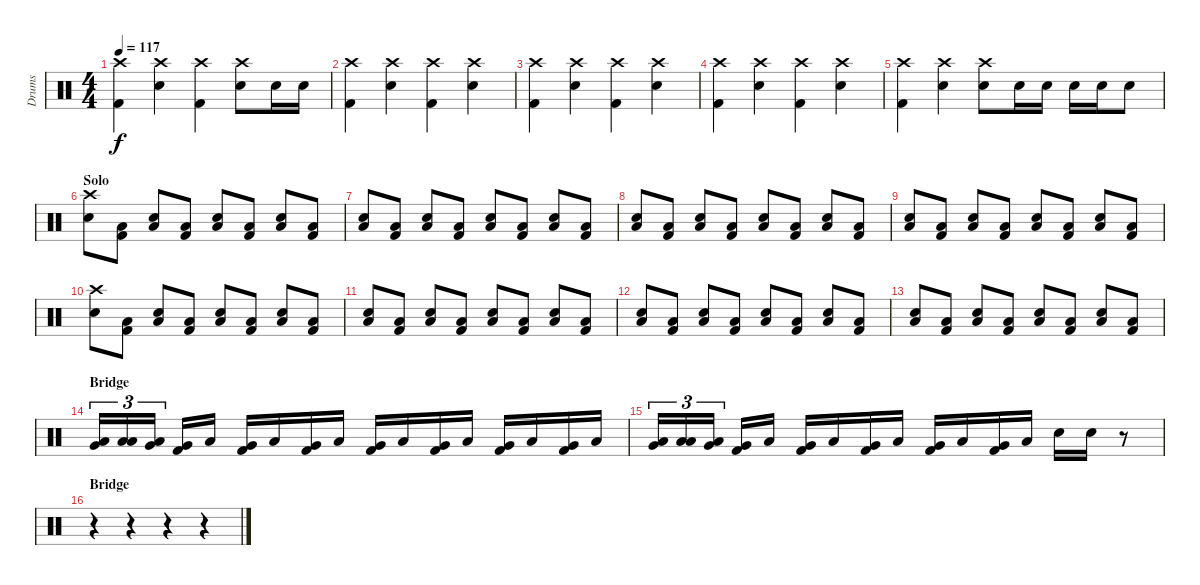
\track ("Drums" "Drums") {instrument percussion}
\staff {score}
\articulation defaults
\ts (4 4)
\tempo 117
\clef neutral
\ks c
("Crash high (hit)" "Kick (hit) 2").4{dy f} ("Crash high (hit)" "Snare (hit) 2").4 ("Crash high (hit)" "Kick (hit) 2").4 ("Crash high (hit)" "Snare (hit) 2").8 "Snare (hit) 2".16 "Snare (hit) 2".16 |
("Crash high (hit)" "Kick (hit) 2").4 ("Crash high (hit)" "Snare (hit) 2").4 ("Crash high (hit)" "Kick (hit) 2").4 ("Crash high (hit)" "Snare (hit) 2").4 |
("Crash high (hit)" "Kick (hit) 2").4 ("Crash high (hit)" "Snare (hit) 2").4 ("Crash high (hit)" "Kick (hit) 2").4 ("Crash high (hit)" "Snare (hit) 2").4 |
("Crash high (hit)" "Kick (hit) 2").4 ("Crash high (hit)" "Snare (hit) 2").4 ("Crash high (hit)" "Kick (hit) 2").4 ("Crash high (hit)" "Snare (hit) 2").4 |
("Crash high (hit)" "Kick (hit) 2").4 ("Crash high (hit)" "Snare (hit) 2").4 ("Crash high (hit)" "Snare (hit) 2").8 "Snare (hit) 2".16 "Snare (hit) 2".16 "Snare (hit) 2".16 "Snare (hit) 2".16 "Snare (hit) 2".8 |
\section ("" "Solo")
("Crash high (hit)" "Snare (hit) 2").8 ("Low Floor Tom (hit)" "Kick (hit) 2").8 ("Low Floor Tom (hit)" "Snare (hit) 2").8 ("Low Floor Tom (hit)" "Kick (hit) 2").8 ("Low Floor Tom (hit)" "Snare (hit) 2").8 ("Low Floor Tom (hit)" "Kick (hit) 2").8 ("Low Floor Tom (hit)" "Snare (hit) 2").8 ("Low Floor Tom (hit)" "Kick (hit) 2").8 |
("Low Floor Tom (hit)" "Snare (hit) 2").8 ("Low Floor Tom (hit)" "Kick (hit) 2").8 ("Low Floor Tom (hit)" "Snare (hit) 2").8 ("Low Floor Tom (hit)" "Kick (hit) 2").8 ("Low Floor Tom (hit)" "Snare (hit) 2").8 ("Low Floor Tom (hit)" "Kick (hit) 2").8 ("Low Floor Tom (hit)" "Snare (hit) 2").8 ("Low Floor Tom (hit)" "Kick (hit) 2").8 |
("Low Floor Tom (hit)" "Snare (hit) 2").8 ("Low Floor Tom (hit)" "Kick (hit) 2").8 ("Low Floor Tom (hit)" "Snare (hit) 2").8 ("Low Floor Tom (hit)" "Kick (hit) 2").8 ("Low Floor Tom (hit)" "Snare (hit) 2").8 ("Low Floor Tom (hit)" "Kick (hit) 2").8 ("Low Floor Tom (hit)" "Snare (hit) 2").8 ("Low Floor Tom (hit)" "Kick (hit) 2").8 |
("Low Floor Tom (hit)" "Snare (hit) 2").8 ("Low Floor Tom (hit)" "Kick (hit) 2").8 ("Low Floor Tom (hit)" "Snare (hit) 2").8 ("Low Floor Tom (hit)" "Kick (hit) 2").8 ("Low Floor Tom (hit)" "Snare (hit) 2").8 ("Low Floor Tom (hit)" "Kick (hit) 2").8 ("Low Floor Tom (hit)" "Snare (hit) 2").8 ("Low Floor Tom (hit)" "Kick (hit) 2").8 |
("Crash high (hit)" "Snare (hit) 2").8 ("Low Floor Tom (hit)" "Kick (hit) 2").8 ("Low Floor Tom (hit)" "Snare (hit) 2").8 ("Low Floor Tom (hit)" "Kick (hit) 2").8 ("Low Floor Tom (hit)" "Snare (hit) 2").8 ("Low Floor Tom (hit)" "Kick (hit) 2").8 ("Low Floor Tom (hit)" "Snare (hit) 2").8 ("Low Floor Tom (hit)" "Kick (hit) 2").8 |
("Low Floor Tom (hit)" "Snare (hit) 2").8 ("Low Floor Tom (hit)" "Kick (hit) 2").8 ("Low Floor Tom (hit)" "Snare (hit) 2").8 ("Low Floor Tom (hit)" "Kick (hit) 2").8 ("Low Floor Tom (hit)" "Snare (hit) 2").8 ("Low Floor Tom (hit)" "Kick (hit) 2").8 ("Low Floor Tom (hit)" "Snare (hit) 2").8 ("Low Floor Tom (hit)" "Kick (hit) 2").8 |
("Low Floor Tom (hit)" "Snare (hit) 2").8 ("Low Floor Tom (hit)" "Kick (hit) 2").8 ("Low Floor Tom (hit)" "Snare (hit) 2").8 ("Low Floor Tom (hit)" "Kick (hit) 2").8 ("Low Floor Tom (hit)" "Snare (hit) 2").8 ("Low Floor Tom (hit)" "Kick (hit) 2").8 ("Low Floor Tom (hit)" "Snare (hit) 2").8 ("Low Floor Tom (hit)" "Kick (hit) 2").8 |
("Low Floor Tom (hit)" "Snare (hit) 2").8 ("Low Floor Tom (hit)" "Kick (hit) 2").8 ("Low Floor Tom (hit)" "Snare (hit) 2").8 ("Low Floor Tom (hit)" "Kick (hit) 2").8 ("Low Floor Tom (hit)" "Snare (hit) 2").8 ("Low Floor Tom (hit)" "Kick (hit) 2").8 ("Low Floor Tom (hit)" "Snare (hit) 2").8 ("Low Floor Tom (hit)" "Kick (hit) 2").8 |
\section ("" "Bridge")
("Low Floor Tom (hit)" "Very Low Tom (hit)").16{tu (3 2)} ("Low Floor Tom (hit)" "Low Tom (hit)").16{tu (3 2)} ("Low Floor Tom (hit)" "Very Low Tom (hit)").16{tu (3 2)} ("Very Low Tom (hit)" "Kick (hit) 2").16 "Low Floor Tom (hit)".16 ("Very Low Tom (hit)" "Kick (hit) 2").16 "Low Floor Tom (hit)".16 ("Very Low Tom (hit)" "Kick (hit) 2").16 "Low Floor Tom (hit)".16 ("Very Low Tom (hit)" "Kick (hit) 2").16 "Low Floor Tom (hit)".16 ("Very Low Tom (hit)" "Kick (hit) 2").16 "Low Floor Tom (hit)".16 ("Very Low Tom (hit)" "Kick (hit) 2").16 "Low Floor Tom (hit)".16 ("Very Low Tom (hit)" "Kick (hit) 2").16 "Low Floor Tom (hit)".16 |
("Low Floor Tom (hit)" "Very Low Tom (hit)").16{tu (3 2)} ("Low Floor Tom (hit)" "Low Tom (hit)").16{tu (3 2)} ("Low Floor Tom (hit)" "Very Low Tom (hit)").16{tu (3 2)} ("Very Low Tom (hit)" "Kick (hit) 2").16 "Low Floor Tom (hit)".16 ("Very Low Tom (hit)" "Kick (hit) 2").16 "Low Floor Tom (hit)".16 ("Very Low Tom (hit)" "Kick (hit) 2").16 "Low Floor Tom (hit)".16 ("Very Low Tom (hit)" "Kick (hit) 2").16 "Low Floor Tom (hit)".16 ("Very Low Tom (hit)" "Kick (hit) 2").16 "Low Floor Tom (hit)".16 "Snare (hit) 2".16 "Snare (hit) 2".16 r.8 |
\section ("" "Bridge")
r.4 r.4 r.4 r.4
